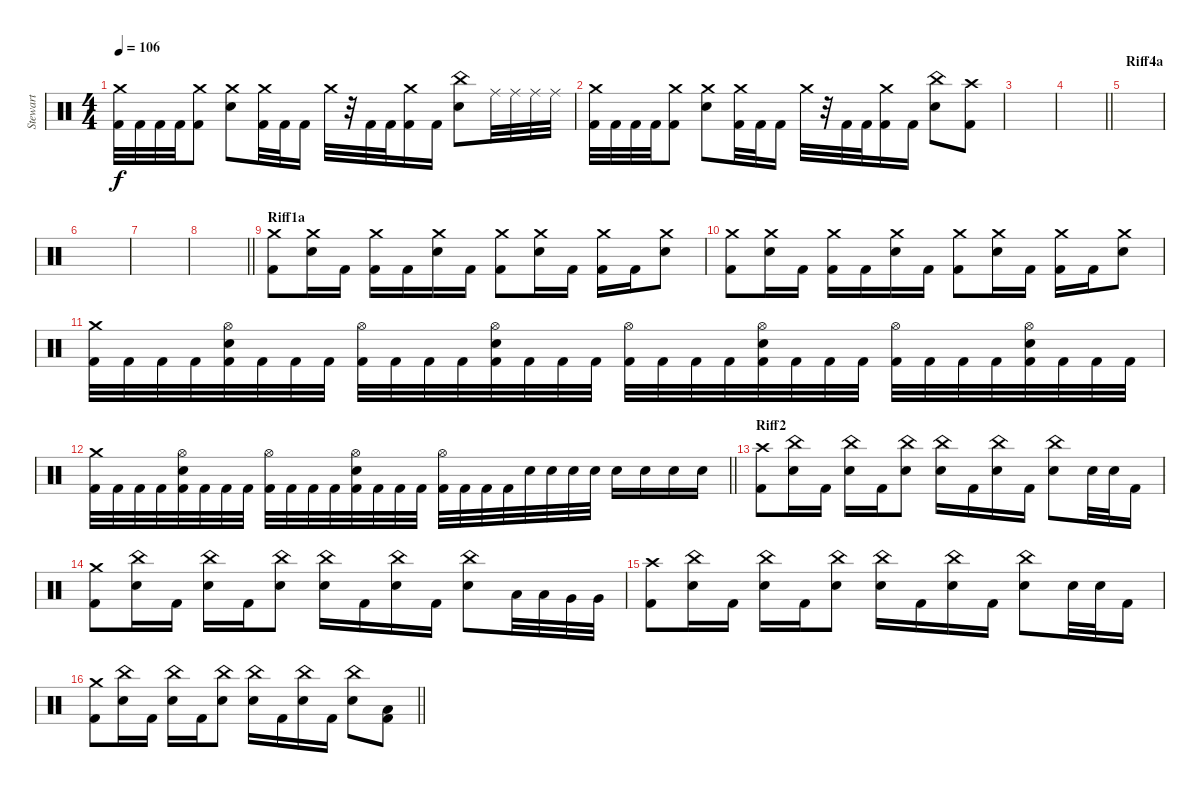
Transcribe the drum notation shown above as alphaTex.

\track ("Stewart" "Stewart") {instrument percussion}
\staff {score}
\articulation defaults
\ts (4 4)
\tempo 106
\clef neutral
\ks c
("Crash medium (hit)" "Kick (hit) 2").32{dy f} "Kick (hit) 2".32 "Kick (hit) 2".32 "Kick (hit) 2".32 ("Crash medium (hit)" "Kick (hit) 2").8 ("Crash medium (hit)" "Electric Snare (hit)").8 ("Crash medium (hit)" "Kick (hit) 2").32 "Kick (hit) 2".32 "Kick (hit) 2".16 "Crash medium (hit)".32 r.32 "Kick (hit) 2".32 "Kick (hit) 2".32 ("Crash medium (hit)" "Kick (hit) 2").16 "Kick (hit) 2".16 ("China (hit)" "Electric Snare (hit)").8 "Ride (middle)".32 "Ride (middle)".32 "Ride (middle)".32 "Ride (middle)".32 |
("Crash medium (hit)" "Kick (hit) 2").32 "Kick (hit) 2".32 "Kick (hit) 2".32 "Kick (hit) 2".32 ("Crash medium (hit)" "Kick (hit) 2").8 ("Crash medium (hit)" "Electric Snare (hit)").8 ("Crash medium (hit)" "Kick (hit) 2").32 "Kick (hit) 2".32 "Kick (hit) 2".16 "Crash medium (hit)".32 r.32 "Kick (hit) 2".32 "Kick (hit) 2".32 ("Crash medium (hit)" "Kick (hit) 2").16 "Kick (hit) 2".16 ("China (hit)" "Electric Snare (hit)").8 ("Crash high (hit)" "Kick (hit) 2").8 |
|
\barLineRight lightlight
|
\section ("" "Riff4a")
|
|
|
\barLineRight lightlight
|
\section ("" "Riff1a")
("Crash medium (hit)" "Kick (hit) 2").8 ("Crash medium (hit)" "Electric Snare (hit)").16 "Kick (hit) 2".16 ("Crash medium (hit)" "Kick (hit) 2").16 "Kick (hit) 2".16 ("Crash medium (hit)" "Electric Snare (hit)").16 "Kick (hit) 2".16 ("Crash medium (hit)" "Kick (hit) 2").8 ("Crash medium (hit)" "Electric Snare (hit)").16 "Kick (hit) 2".16 ("Crash medium (hit)" "Kick (hit) 2").16 "Kick (hit) 2".16 ("Crash medium (hit)" "Electric Snare (hit)").8 |
("Crash medium (hit)" "Kick (hit) 2").8 ("Crash medium (hit)" "Electric Snare (hit)").16 "Kick (hit) 2".16 ("Crash medium (hit)" "Kick (hit) 2").16 "Kick (hit) 2".16 ("Crash medium (hit)" "Electric Snare (hit)").16 "Kick (hit) 2".16 ("Crash medium (hit)" "Kick (hit) 2").8 ("Crash medium (hit)" "Electric Snare (hit)").16 "Kick (hit) 2".16 ("Crash medium (hit)" "Kick (hit) 2").16 "Kick (hit) 2".16 ("Crash medium (hit)" "Electric Snare (hit)").8 |
("Crash medium (hit)" "Kick (hit) 2").32 "Kick (hit) 2".32 "Kick (hit) 2".32 "Kick (hit) 2".32 ("Hi-Hat (open)" "Electric Snare (hit)" "Kick (hit) 2").32 "Kick (hit) 2".32 "Kick (hit) 2".32 "Kick (hit) 2".32 ("Hi-Hat (open)" "Kick (hit) 2").32 "Kick (hit) 2".32 "Kick (hit) 2".32 "Kick (hit) 2".32 ("Hi-Hat (open)" "Electric Snare (hit)" "Kick (hit) 2").32 "Kick (hit) 2".32 "Kick (hit) 2".32 "Kick (hit) 2".32 ("Hi-Hat (open)" "Kick (hit) 2").32 "Kick (hit) 2".32 "Kick (hit) 2".32 "Kick (hit) 2".32 ("Hi-Hat (open)" "Electric Snare (hit)" "Kick (hit) 2").32 "Kick (hit) 2".32 "Kick (hit) 2".32 "Kick (hit) 2".32 ("Hi-Hat (open)" "Kick (hit) 2").32 "Kick (hit) 2".32 "Kick (hit) 2".32 "Kick (hit) 2".32 ("Hi-Hat (open)" "Electric Snare (hit)" "Kick (hit) 2").32 "Kick (hit) 2".32 "Kick (hit) 2".32 "Kick (hit) 2".32 |
\barLineRight lightlight
("Crash medium (hit)" "Kick (hit) 2").32 "Kick (hit) 2".32 "Kick (hit) 2".32 "Kick (hit) 2".32 ("Hi-Hat (open)" "Electric Snare (hit)" "Kick (hit) 2").32 "Kick (hit) 2".32 "Kick (hit) 2".32 "Kick (hit) 2".32 ("Hi-Hat (open)" "Kick (hit) 2").32 "Kick (hit) 2".32 "Kick (hit) 2".32 "Kick (hit) 2".32 ("Hi-Hat (open)" "Electric Snare (hit)" "Kick (hit) 2").32 "Kick (hit) 2".32 "Kick (hit) 2".32 "Kick (hit) 2".32 ("Hi-Hat (open)" "Kick (hit) 2").32 "Kick (hit) 2".32 "Kick (hit) 2".32 "Kick (hit) 2".32 "Electric Snare (hit)".32 "Electric Snare (hit)".32 "Electric Snare (hit)".32 "Electric Snare (hit)".32 "Electric Snare (hit)".16 "Electric Snare (hit)".16 "Electric Snare (hit)".16 "Electric Snare (hit)".16 |
\section ("" "Riff2")
("Crash high (hit)" "Kick (hit) 2").8 ("China (hit)" "Electric Snare (hit)").16 "Kick (hit) 2".16 ("China (hit)" "Electric Snare (hit)").16 "Kick (hit) 2".16 ("China (hit)" "Electric Snare (hit)").8 ("China (hit)" "Electric Snare (hit)").16 "Kick (hit) 2".16 ("China (hit)" "Electric Snare (hit)").16 "Kick (hit) 2".16 ("China (hit)" "Electric Snare (hit)").8 "Electric Snare (hit)".32 "Electric Snare (hit)".32 "Kick (hit) 2".16 |
("Crash medium (hit)" "Kick (hit) 2").8 ("China (hit)" "Electric Snare (hit)").16 "Kick (hit) 2".16 ("China (hit)" "Electric Snare (hit)").16 "Kick (hit) 2".16 ("China (hit)" "Electric Snare (hit)").8 ("China (hit)" "Electric Snare (hit)").16 "Kick (hit) 2".16 ("China (hit)" "Electric Snare (hit)").16 "Kick (hit) 2".16 ("China (hit)" "Electric Snare (hit)").8 "Low Tom (hit)".32 "Low Tom (hit)".32 "Very Low Tom (hit)".32 "Very Low Tom (hit)".32 |
("Crash high (hit)" "Kick (hit) 2").8 ("China (hit)" "Electric Snare (hit)").16 "Kick (hit) 2".16 ("China (hit)" "Electric Snare (hit)").16 "Kick (hit) 2".16 ("China (hit)" "Electric Snare (hit)").8 ("China (hit)" "Electric Snare (hit)").16 "Kick (hit) 2".16 ("China (hit)" "Electric Snare (hit)").16 "Kick (hit) 2".16 ("China (hit)" "Electric Snare (hit)").8 "Electric Snare (hit)".32 "Electric Snare (hit)".32 "Kick (hit) 2".16 |
\barLineRight lightlight
("Crash medium (hit)" "Kick (hit) 2").8 ("China (hit)" "Electric Snare (hit)").16 "Kick (hit) 2".16 ("China (hit)" "Electric Snare (hit)").16 "Kick (hit) 2".16 ("China (hit)" "Electric Snare (hit)").8 ("China (hit)" "Electric Snare (hit)").16 "Kick (hit) 2".16 ("China (hit)" "Electric Snare (hit)").16 "Kick (hit) 2".16 ("China (hit)" "Electric Snare (hit)").8 ("Low Tom (hit)" "Kick (hit) 2").8
